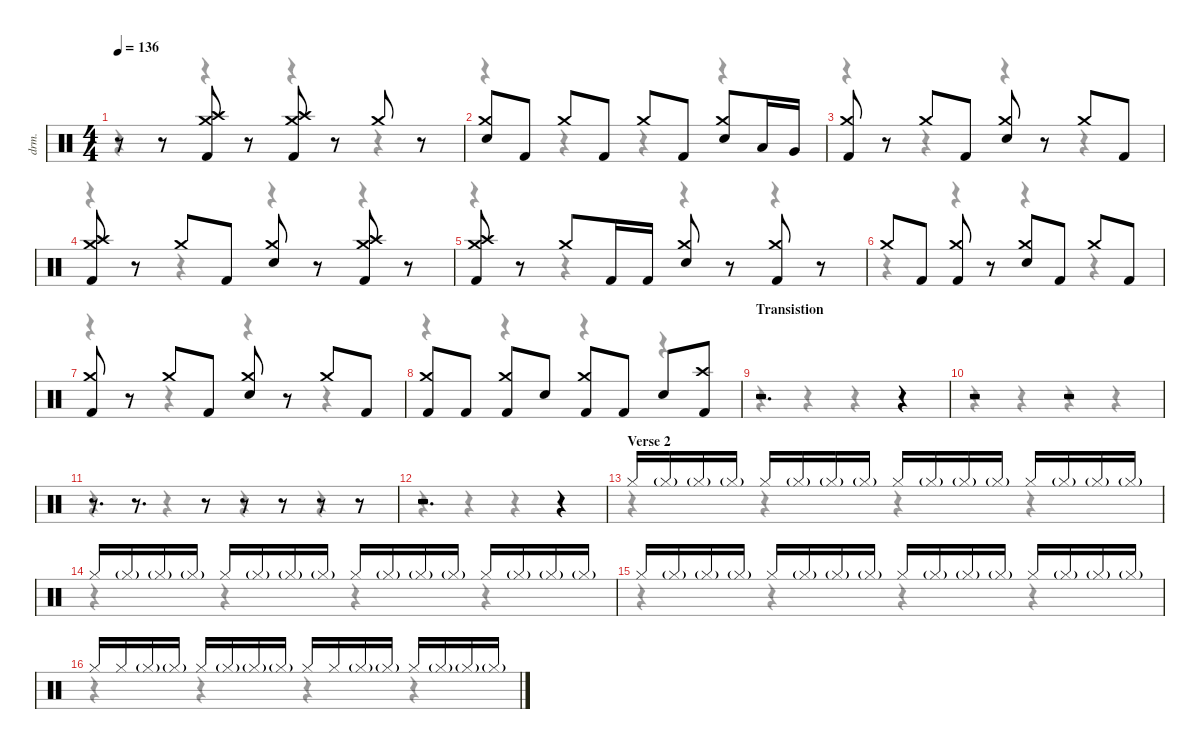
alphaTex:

\defaultSystemsLayout 4
\hideDynamics
\bracketExtendMode nobrackets
\track ("Drums" "drm.") {instrument percussion}
\staff {score}
\articulation defaults
\voice
\ts (4 4)
\tempo 136
\clef neutral
\ks c
r.8{dy f beam Up} r.8{beam Up} ("Crash medium (hit)" "Crash high (hit)" "Kick (hit) 2").8{beam Up} r.8{beam Up} ("Crash medium (hit)" "Crash high (hit)" "Kick (hit) 2").8{beam Up} r.8{beam Up} "Crash medium (hit)".8{beam Up} r.8{beam Up} |
("Crash medium (hit)" "Snare (hit) 2").8{beam Up} "Kick (hit) 2".8{beam Up} "Crash medium (hit)".8{beam Up} "Kick (hit) 2".8{beam Up} "Crash medium (hit)".8{beam Up} "Kick (hit) 2".8{beam Up} ("Crash medium (hit)" "Snare (hit) 2").8{beam Up} "Low Tom (hit)".16{beam Up} "Very Low Tom (hit)".16{beam Up} |
("Crash medium (hit)" "Kick (hit) 2").8{beam Up} r.8{beam Up} "Crash medium (hit)".8{beam Up} "Kick (hit) 2".8{beam Up} ("Crash medium (hit)" "Snare (hit) 2").8{beam Up} r.8{beam Up} "Crash medium (hit)".8{beam Up} "Kick (hit) 2".8{beam Up} |
("Crash medium (hit)" "Crash high (hit)" "Kick (hit) 2").8{beam Up} r.8{beam Up} "Crash medium (hit)".8{beam Up} "Kick (hit) 2".8{beam Up} ("Crash medium (hit)" "Snare (hit) 2").8{beam Up} r.8{beam Up} ("Crash medium (hit)" "Crash high (hit)" "Kick (hit) 2").8{beam Up} r.8{beam Up} |
("Crash medium (hit)" "Crash high (hit)" "Kick (hit) 2").8{beam Up} r.8{beam Up} "Crash medium (hit)".8{beam Up} "Kick (hit) 2".16{beam Up} "Kick (hit) 2".16{beam Up} ("Crash medium (hit)" "Snare (hit) 2").8{beam Up} r.8{beam Up} ("Crash medium (hit)" "Kick (hit) 2").8{beam Up} r.8{beam Up} |
"Crash medium (hit)".8{beam Up} "Kick (hit) 2".8{beam Up} ("Crash medium (hit)" "Kick (hit) 2").8{beam Up} r.8{beam Up} ("Crash medium (hit)" "Snare (hit) 2").8{beam Up} "Kick (hit) 2".8{beam Up} "Crash medium (hit)".8{beam Up} "Kick (hit) 2".8{beam Up} |
("Crash medium (hit)" "Kick (hit) 2").8{beam Up} r.8{beam Up} "Crash medium (hit)".8{beam Up} "Kick (hit) 2".8{beam Up} ("Crash medium (hit)" "Snare (hit) 2").8{beam Up} r.8{beam Up} "Crash medium (hit)".8{beam Up} "Kick (hit) 2".8{beam Up} |
("Crash medium (hit)" "Kick (hit) 2").8{beam Up} "Kick (hit) 2".8{beam Up} ("Crash medium (hit)" "Kick (hit) 2").8{beam Up} "Snare (hit) 2".8{beam Up} ("Crash medium (hit)" "Kick (hit) 2").8{beam Up} "Kick (hit) 2".8{beam Up} "Snare (hit) 2".8{beam Up} ("Crash high (hit)" "Kick (hit) 2").8{beam Up} |
\section ("" "Transistion")
r.2{d beam Up} r.4{beam Up} |
r.2{beam Up} r.2{beam Up} |
r.8{d beam Up} r.8{d beam Up} r.8{beam Up} r.8{beam Up} r.8{beam Up} r.8{beam Up} r.8{beam Up} |
r.2{d beam Up} r.4{beam Up} |
\section ("" "Verse 2")
"Hi-Hat (closed)".16{beam Up} "Hi-Hat (closed)"{g}.16{beam Up} "Hi-Hat (closed)"{g}.16{dy ff beam Up} "Hi-Hat (closed)"{g}.16{beam Up} "Hi-Hat (closed)".16{dy f beam Up} "Hi-Hat (closed)"{g}.16{beam Up} "Hi-Hat (closed)"{g}.16{dy ff beam Up} "Hi-Hat (closed)"{g}.16{beam Up} "Hi-Hat (closed)".16{dy f beam Up} "Hi-Hat (closed)"{g}.16{beam Up} "Hi-Hat (closed)"{g}.16{dy ff beam Up} "Hi-Hat (closed)"{g}.16{beam Up} "Hi-Hat (closed)".16{dy f beam Up} "Hi-Hat (closed)"{g}.16{beam Up} "Hi-Hat (closed)"{g}.16{dy ff beam Up} "Hi-Hat (closed)"{g}.16{beam Up} |
"Hi-Hat (closed)".16{dy f beam Up} "Hi-Hat (closed)"{g}.16{beam Up} "Hi-Hat (closed)"{g}.16{dy ff beam Up} "Hi-Hat (closed)"{g}.16{beam Up} "Hi-Hat (closed)".16{dy f beam Up} "Hi-Hat (closed)"{g}.16{beam Up} "Hi-Hat (closed)"{g}.16{dy ff beam Up} "Hi-Hat (closed)"{g}.16{beam Up} "Hi-Hat (closed)".16{dy f beam Up} "Hi-Hat (closed)"{g}.16{beam Up} "Hi-Hat (closed)"{g}.16{dy ff beam Up} "Hi-Hat (closed)"{g}.16{beam Up} "Hi-Hat (closed)".16{dy f beam Up} "Hi-Hat (closed)"{g}.16{beam Up} "Hi-Hat (closed)"{g}.16{dy ff beam Up} "Hi-Hat (closed)"{g}.16{beam Up} |
"Hi-Hat (closed)".16{dy f beam Up} "Hi-Hat (closed)"{g}.16{beam Up} "Hi-Hat (closed)"{g}.16{dy ff beam Up} "Hi-Hat (closed)"{g}.16{beam Up} "Hi-Hat (closed)".16{dy f beam Up} "Hi-Hat (closed)"{g}.16{beam Up} "Hi-Hat (closed)"{g}.16{dy ff beam Up} "Hi-Hat (closed)"{g}.16{beam Up} "Hi-Hat (closed)".16{dy f beam Up} "Hi-Hat (closed)"{g}.16{beam Up} "Hi-Hat (closed)"{g}.16{dy ff beam Up} "Hi-Hat (closed)"{g}.16{beam Up} "Hi-Hat (closed)".16{dy f beam Up} "Hi-Hat (closed)"{g}.16{beam Up} "Hi-Hat (closed)"{g}.16{dy ff beam Up} "Hi-Hat (closed)"{g}.16{beam Up} |
"Hi-Hat (closed)".16{dy f beam Up} "Hi-Hat (closed)".16{dy ff beam Up} "Hi-Hat (closed)"{g}.16{beam Up} "Hi-Hat (closed)"{g}.16{beam Up} "Hi-Hat (closed)".16{dy f beam Up} "Hi-Hat (closed)"{g}.16{beam Up} "Hi-Hat (closed)"{g}.16{dy ff beam Up} "Hi-Hat (closed)"{g}.16{beam Up} "Hi-Hat (closed)".16{dy f beam Up} "Hi-Hat (closed)".16{dy ff beam Up} "Hi-Hat (closed)"{g}.16{beam Up} "Hi-Hat (closed)"{g}.16{beam Up} "Hi-Hat (closed)".16{dy f beam Up} "Hi-Hat (closed)"{g}.16{beam Up} "Hi-Hat (closed)"{g}.16{dy ff beam Up} "Hi-Hat (closed)"{g}.16{beam Up}
\voice
\clef neutral
\ottava regular
\simile none
\ks c
r.4{dy mf beam Down} r.4{beam Down} r.4{beam Down} r.4{beam Down} |
r.4{beam Down} r.4{beam Down} r.4{beam Down} r.4{beam Down} |
r.4{beam Down} r.4{beam Down} r.4{beam Down} r.4{beam Down} |
r.4{beam Down} r.4{beam Down} r.4{beam Down} r.4{beam Down} |
r.4{beam Down} r.4{beam Down} r.4{beam Down} r.4{beam Down} |
r.4{beam Down} r.4{beam Down} r.4{beam Down} r.4{beam Down} |
r.4{beam Down} r.4{beam Down} r.4{beam Down} r.4{beam Down} |
r.4{beam Down} r.4{beam Down} r.4{beam Down} r.4{beam Down} |
r.4{beam Down} r.4{beam Down} r.4{beam Down} r.4{beam Down} |
r.4{beam Down} r.4{beam Down} r.4{beam Down} r.4{beam Down} |
r.4{beam Down} r.4{beam Down} r.4{beam Down} r.4{beam Down} |
r.4{beam Down} r.4{beam Down} r.4{beam Down} r.4{beam Down} |
r.4{beam Down} r.4{beam Down} r.4{beam Down} r.4{beam Down} |
r.4{beam Down} r.4{beam Down} r.4{beam Down} r.4{beam Down} |
r.4{beam Down} r.4{beam Down} r.4{beam Down} r.4{beam Down} |
r.4{beam Down} r.4{beam Down} r.4{beam Down} r.4{beam Down}
